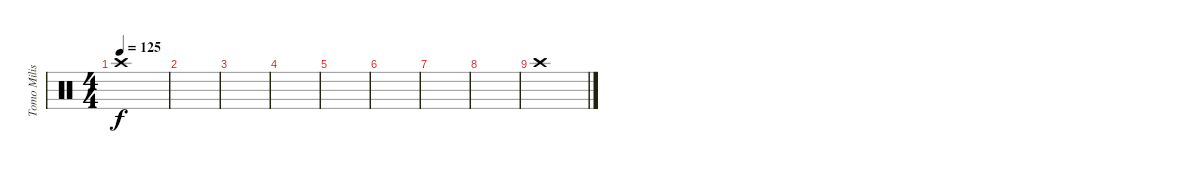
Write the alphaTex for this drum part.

\track ("Tomo Milisevic" "Tomo Milis") {instrument percussion}
\staff {score}
\articulation defaults
\ts (4 4)
\tempo 125
\clef neutral
\ks c "Crash high (hit)".1{dy f}
|
|
|
|
|
|
|
|
"Crash high (hit)".1
